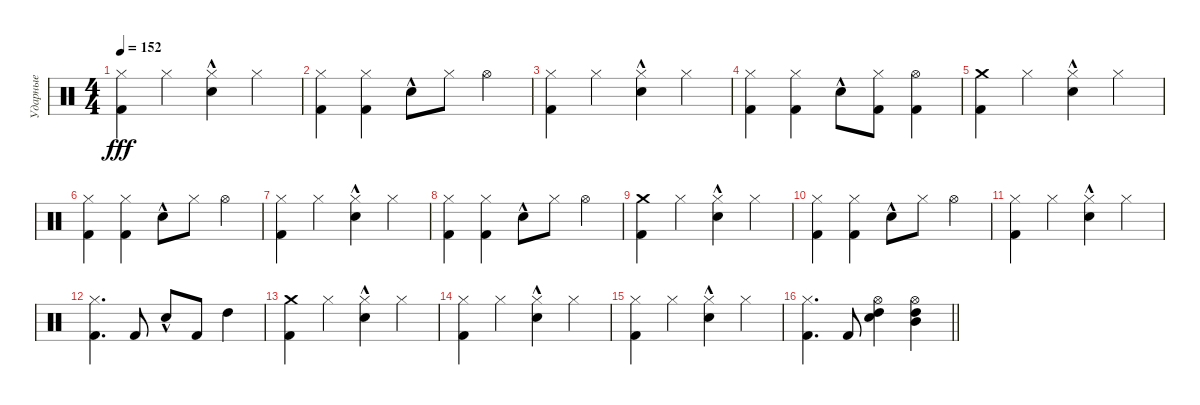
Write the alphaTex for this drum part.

\track ("Ударные" "Ударные") {instrument percussion}
\staff {score}
\articulation defaults
\ts (4 4)
\tempo 152
\clef neutral
\ks c
("Hi-Hat (closed)" "Kick (hit) 2").4{dy fff} "Hi-Hat (closed)".4 ("Hi-Hat (closed)" "Electric Snare (hit)"{hac}).4 "Hi-Hat (closed)".4 |
("Hi-Hat (closed)" "Kick (hit) 2").4 ("Hi-Hat (closed)" "Kick (hit) 2").4 "Electric Snare (hit)"{hac}.8 "Hi-Hat (closed)".8 "Hi-Hat (open)".4 |
("Hi-Hat (closed)" "Kick (hit) 2").4 "Hi-Hat (closed)".4 ("Hi-Hat (closed)" "Electric Snare (hit)"{hac}).4 "Hi-Hat (closed)".4 |
("Hi-Hat (closed)" "Kick (hit) 2").4 ("Hi-Hat (closed)" "Kick (hit) 2").4 "Electric Snare (hit)"{hac}.8 ("Hi-Hat (closed)" "Kick (hit) 2").8 ("Hi-Hat (open)" "Kick (hit) 2").4 |
("Crash medium (hit)" "Kick (hit) 2").4 "Hi-Hat (closed)".4 ("Hi-Hat (closed)" "Electric Snare (hit)"{hac}).4 "Hi-Hat (closed)".4 |
("Hi-Hat (closed)" "Kick (hit) 2").4 ("Hi-Hat (closed)" "Kick (hit) 2").4 "Electric Snare (hit)"{hac}.8 "Hi-Hat (closed)".8 "Hi-Hat (open)".4 |
("Hi-Hat (closed)" "Kick (hit) 2").4 "Hi-Hat (closed)".4 ("Hi-Hat (closed)" "Electric Snare (hit)"{hac}).4 "Hi-Hat (closed)".4 |
("Hi-Hat (closed)" "Kick (hit) 2").4 ("Hi-Hat (closed)" "Kick (hit) 2").4 "Electric Snare (hit)"{hac}.8 "Hi-Hat (closed)".8 "Hi-Hat (open)".4 |
("Crash medium (hit)" "Kick (hit) 2").4 "Hi-Hat (closed)".4 ("Hi-Hat (closed)" "Electric Snare (hit)"{hac}).4 "Hi-Hat (closed)".4 |
("Hi-Hat (closed)" "Kick (hit) 2").4 ("Hi-Hat (closed)" "Kick (hit) 2").4 "Electric Snare (hit)"{hac}.8 "Hi-Hat (closed)".8 "Hi-Hat (open)".4 |
("Hi-Hat (closed)" "Kick (hit) 2").4 "Hi-Hat (closed)".4 ("Hi-Hat (closed)" "Electric Snare (hit)"{hac}).4 "Hi-Hat (closed)".4 |
("Hi-Hat (closed)" "Kick (hit) 2").4{d} "Kick (hit) 2".8 "Electric Snare (hit)"{hac}.8 "Kick (hit) 2".8 "High Tom (hit)".4 |
("Crash medium (hit)" "Kick (hit) 2").4 "Hi-Hat (closed)".4 ("Hi-Hat (closed)" "Electric Snare (hit)"{hac}).4 "Hi-Hat (closed)".4 |
("Hi-Hat (closed)" "Kick (hit) 2").4 "Hi-Hat (closed)".4 ("Hi-Hat (closed)" "Electric Snare (hit)"{hac}).4 "Hi-Hat (closed)".4 |
("Hi-Hat (closed)" "Kick (hit) 2").4 "Hi-Hat (closed)".4 ("Hi-Hat (closed)" "Electric Snare (hit)"{hac}).4 "Hi-Hat (closed)".4 |
\barLineRight lightlight
("Hi-Hat (closed)" "Kick (hit) 2").4{d} "Kick (hit) 2".8 ("Hi-Hat (open)" "High Tom (hit)" "Electric Snare (hit)").4 ("Hi-Hat (open)" "High Tom (hit)" "Mid Tom (hit)").4
